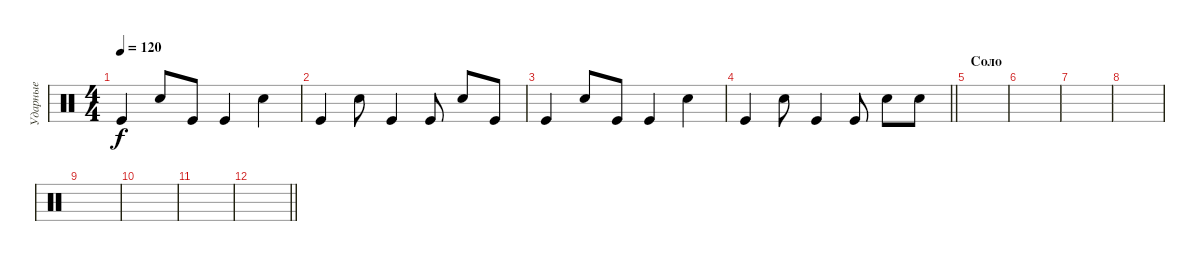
\track ("Ударные" "Ударные") {instrument percussion}
\staff {score}
\articulation defaults
\ts (4 4)
\tempo 120
\clef neutral
\ks c "Kick (hit)".4{dy f} "Snare (hit) 2".8 "Kick (hit)".8 "Kick (hit)".4 "Snare (hit) 2".4
|
"Kick (hit)".4 "Snare (hit) 2".8 "Kick (hit)".4 "Kick (hit)".8 "Snare (hit) 2".8 "Kick (hit)".8 |
"Kick (hit)".4 "Snare (hit) 2".8 "Kick (hit)".8 "Kick (hit)".4 "Snare (hit) 2".4 |
\barLineRight lightlight "Kick (hit)".4 "Snare (hit) 2".8 "Kick (hit)".4 "Kick (hit)".8 "Snare (hit) 2".8 "Snare (hit) 2".8
|
\section ("" "Соло")
|
|
|
|
|
|
|
\barLineRight lightlight
